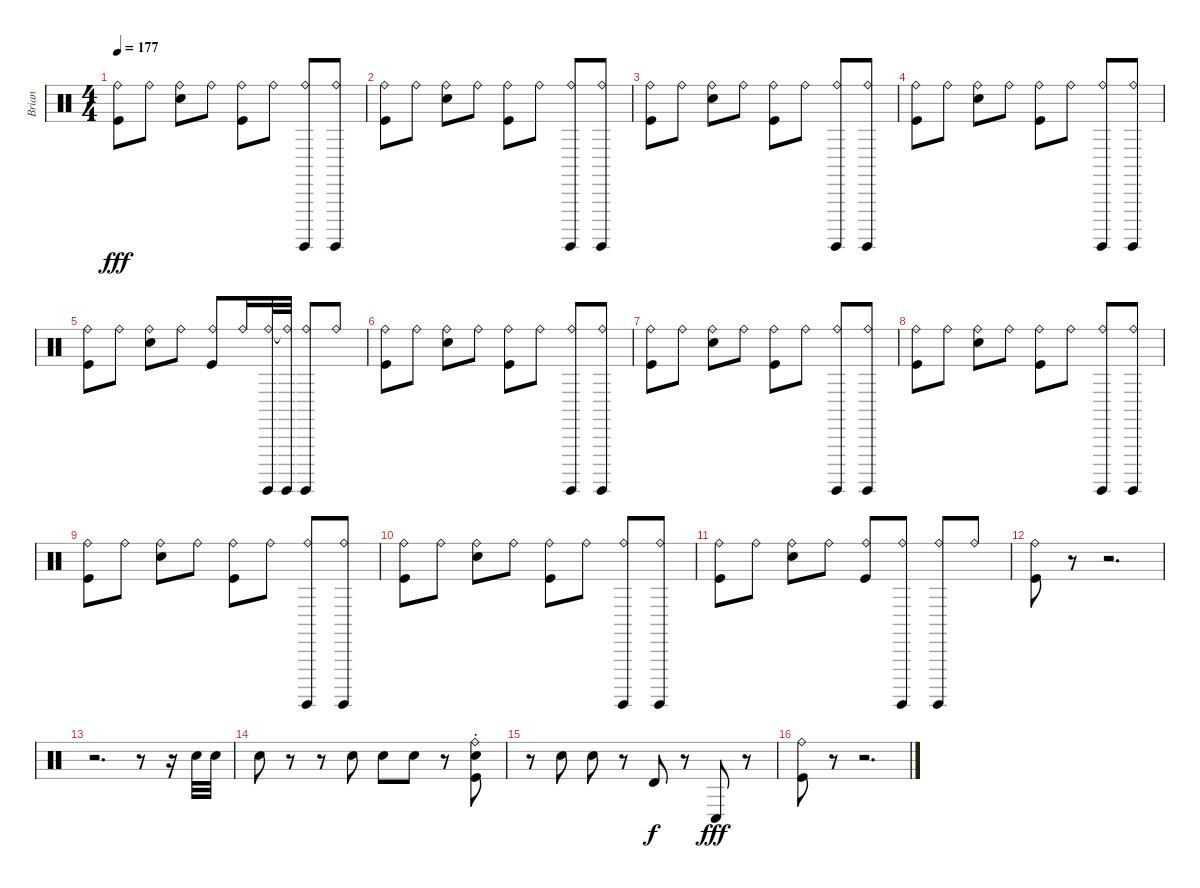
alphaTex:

\track ("Brian" "Brian") {instrument percussion}
\staff {score}
\articulation defaults
\ts (4 4)
\tempo 177
\clef neutral
\ks c
("Ride (bell)" "Kick (hit)").8{dy fff} "Ride (bell)".8 ("Ride (bell)" "Electric Snare (hit)").8 "Ride (bell)".8 ("Ride (bell)" "Kick (hit)").8 "Ride (bell)".8 ("Surdo (hit)" "Ride (bell)").8 ("Surdo (hit)" "Ride (bell)").8 |
("Ride (bell)" "Kick (hit)").8 "Ride (bell)".8 ("Ride (bell)" "Electric Snare (hit)").8 "Ride (bell)".8 ("Ride (bell)" "Kick (hit)").8 "Ride (bell)".8 ("Surdo (hit)" "Ride (bell)").8 ("Surdo (hit)" "Ride (bell)").8 |
("Ride (bell)" "Kick (hit)").8 "Ride (bell)".8 ("Ride (bell)" "Electric Snare (hit)").8 "Ride (bell)".8 ("Ride (bell)" "Kick (hit)").8 "Ride (bell)".8 ("Surdo (hit)" "Ride (bell)").8 ("Surdo (hit)" "Ride (bell)").8 |
("Ride (bell)" "Kick (hit)").8 "Ride (bell)".8 ("Ride (bell)" "Electric Snare (hit)").8 "Ride (bell)".8 ("Ride (bell)" "Kick (hit)").8 "Ride (bell)".8 ("Surdo (hit)" "Ride (bell)").8 ("Surdo (hit)" "Ride (bell)").8 |
("Ride (bell)" "Kick (hit)").8 "Ride (bell)".8 ("Ride (bell)" "Electric Snare (hit)").8 "Ride (bell)".8 ("Ride (bell)" "Kick (hit)").8 "Ride (bell)".16 ("Surdo (hit)" "Ride (bell)").32 ("Surdo (hit)" "Ride (bell)"{t}).32 ("Surdo (hit)" "Ride (bell)").8 "Ride (bell)".8 |
("Ride (bell)" "Kick (hit)").8 "Ride (bell)".8 ("Ride (bell)" "Electric Snare (hit)").8 "Ride (bell)".8 ("Ride (bell)" "Kick (hit)").8 "Ride (bell)".8 ("Surdo (hit)" "Ride (bell)").8 ("Surdo (hit)" "Ride (bell)").8 |
("Ride (bell)" "Kick (hit)").8 "Ride (bell)".8 ("Ride (bell)" "Electric Snare (hit)").8 "Ride (bell)".8 ("Ride (bell)" "Kick (hit)").8 "Ride (bell)".8 ("Surdo (hit)" "Ride (bell)").8 ("Surdo (hit)" "Ride (bell)").8 |
("Ride (bell)" "Kick (hit)").8 "Ride (bell)".8 ("Ride (bell)" "Electric Snare (hit)").8 "Ride (bell)".8 ("Ride (bell)" "Kick (hit)").8 "Ride (bell)".8 ("Surdo (hit)" "Ride (bell)").8 ("Surdo (hit)" "Ride (bell)").8 |
("Ride (bell)" "Kick (hit)").8 "Ride (bell)".8 ("Ride (bell)" "Electric Snare (hit)").8 "Ride (bell)".8 ("Ride (bell)" "Kick (hit)").8 "Ride (bell)".8 ("Surdo (hit)" "Ride (bell)").8 ("Surdo (hit)" "Ride (bell)").8 |
("Ride (bell)" "Kick (hit)").8 "Ride (bell)".8 ("Ride (bell)" "Electric Snare (hit)").8 "Ride (bell)".8 ("Ride (bell)" "Kick (hit)").8 "Ride (bell)".8 ("Surdo (hit)" "Ride (bell)").8 ("Surdo (hit)" "Ride (bell)").8 |
("Ride (bell)" "Kick (hit)").8 "Ride (bell)".8 ("Ride (bell)" "Electric Snare (hit)").8 "Ride (bell)".8 ("Ride (bell)" "Kick (hit)").8 ("Surdo (hit)" "Ride (bell)").8 ("Surdo (hit)" "Ride (bell)").8 "Ride (bell)".8 |
("Ride (bell)" "Kick (hit)").8 r.8 r.2{d} |
r.2{d} r.8 r.16 "Electric Snare (hit)".32 "Electric Snare (hit)".32 |
"Electric Snare (hit)".8 r.8 r.8 "Electric Snare (hit)".8 "Electric Snare (hit)".8 "Electric Snare (hit)".8 r.8 ("Ride (bell)"{st} "Electric Snare (hit)" "Kick (hit)").8 |
r.8 "Electric Snare (hit)".8 "Electric Snare (hit)".8 r.8 "Timbale high (hit)".8{dy f} r.8 "Conga low (hit)".8{dy fff} r.8 |
("Ride (bell)" "Kick (hit)").8 r.8 r.2{d}
